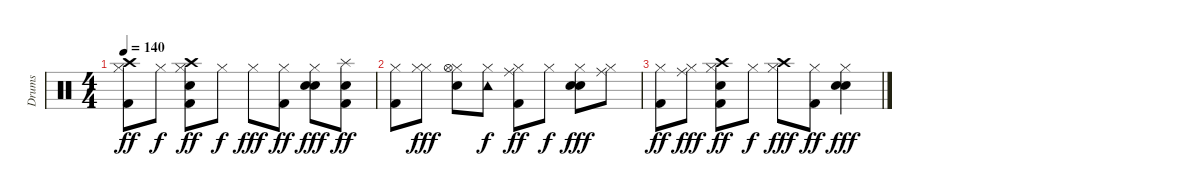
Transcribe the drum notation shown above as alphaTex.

\track ("Drums" "Drums") {instrument percussion}
\staff {score}
\articulation defaults
\ts (4 4)
\tempo 140
\clef neutral
\ks c
("Hi-Hat (closed)" "Crash high (hit)" "Kick (hit) 2").8{dy ff} "Hi-Hat (closed)".8{dy f} ("Hi-Hat (closed)" "Crash high (hit)" "Snare (hit) 2" "Kick (hit) 2").8{dy ff} "Hi-Hat (closed)".8{dy f} "Hi-Hat (closed)".8{dy fff} ("Hi-Hat (closed)" "Kick (hit) 2").8{dy ff} ("Hi-Hat (closed)" "Snare (hit) 2" "Hand Clap (hit)").8{dy fff} ("Splash (hit)" "Hand Clap (hit)" "Kick (hit) 2").8{dy ff} |
("Hi-Hat (closed)" "Kick (hit) 2").8 ("Hi-Hat (closed)" "Hi-Hat (closed)").8{dy fff} ("Hi-Hat (closed)" "Hi-Hat (open)" "Snare (hit) 2").8 ("Hi-Hat (closed)" "Tambourine (hit)").8{dy f} ("Hi-Hat (closed)" "Ride (middle)" "Kick (hit) 2").8{dy ff} "Hi-Hat (closed)".8{dy f} ("Hi-Hat (closed)" "Snare (hit) 2" "Hand Clap (hit)").8{dy fff} ("Hi-Hat (closed)" "Ride (middle)").8 |
("Hi-Hat (closed)" "Kick (hit) 2").8{dy ff} ("Hi-Hat (closed)" "Ride (middle)").8{dy fff} ("Hi-Hat (closed)" "Crash high (hit)" "Snare (hit) 2" "Kick (hit) 2").8{dy ff} "Hi-Hat (closed)".8{dy f} ("Hi-Hat (closed)" "Crash high (hit)").8{dy fff} ("Hi-Hat (closed)" "Kick (hit) 2").8{dy ff} ("Hi-Hat (closed)" "Snare (hit) 2" "Hand Clap (hit)").4{dy fff}
